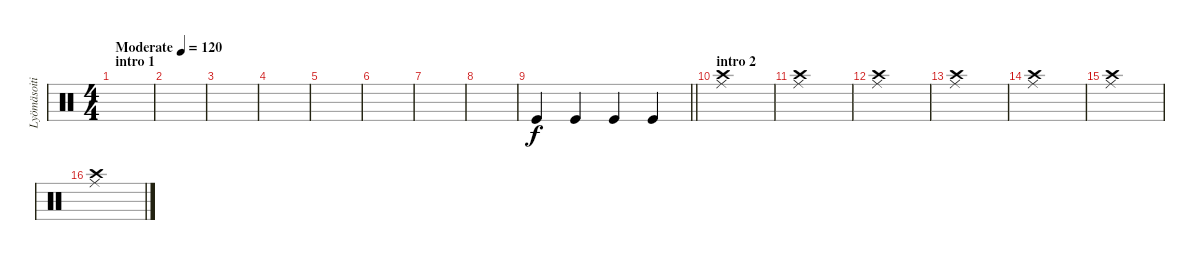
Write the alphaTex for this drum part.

\track ("Lyömäsoitin" "Lyömäsoiti") {instrument percussion}
\staff {score}
\articulation defaults
\ts (4 4)
\section ("" "intro 1")
\tempo (120 "Moderate")
\clef neutral
\ks c
|
|
|
|
|
|
|
|
\barLineRight lightlight "Kick (hit)".4 "Kick (hit)".4 "Kick (hit)".4 "Kick (hit)".4
|
\section ("" "intro 2")
("Crash high (hit)" "Ride (middle)").1 |
("Crash high (hit)" "Ride (middle)").1 |
("Crash high (hit)" "Ride (middle)").1 |
("Crash high (hit)" "Ride (middle)").1 |
("Crash high (hit)" "Ride (middle)").1 |
("Crash high (hit)" "Ride (middle)").1 |
("Crash high (hit)" "Ride (middle)").1
